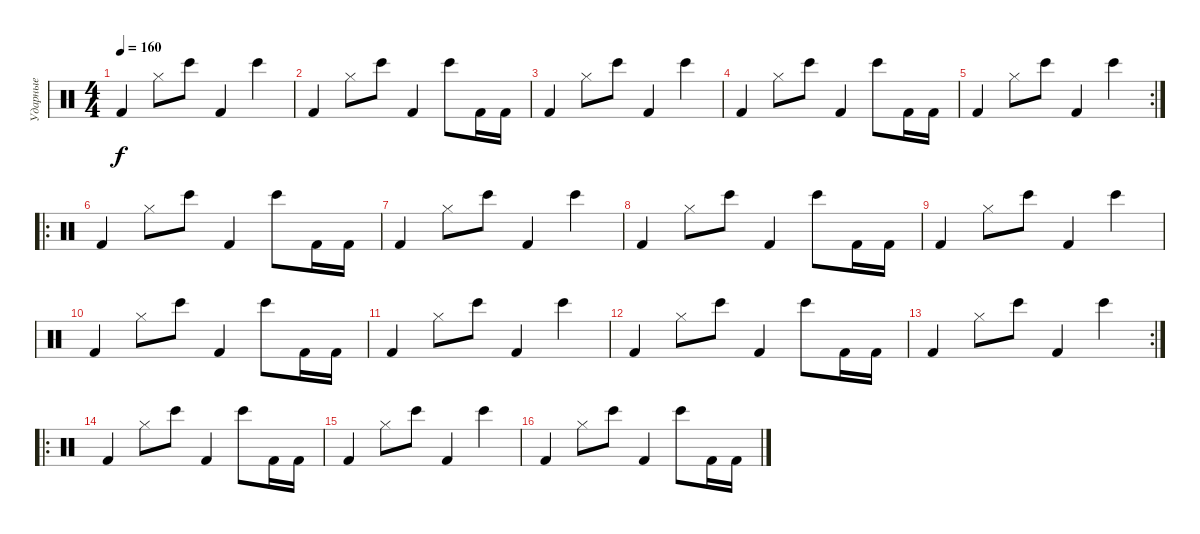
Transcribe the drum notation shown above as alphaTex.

\track ("Ударные" "Ударные") {instrument percussion}
\staff {score}
\articulation defaults
\ts (4 4)
\tempo 160
\clef neutral
\ks c "Kick (hit) 2".4{dy f} "Hi-Hat (closed)".8 "Bongo High (hit)".8 "Kick (hit) 2".4 "Bongo High (hit)".4
|
"Kick (hit) 2".4 "Hi-Hat (closed)".8 "Bongo High (hit)".8 "Kick (hit) 2".4 "Bongo High (hit)".8 "Kick (hit) 2".16 "Kick (hit) 2".16 |
"Kick (hit) 2".4 "Hi-Hat (closed)".8 "Bongo High (hit)".8 "Kick (hit) 2".4 "Bongo High (hit)".4 |
"Kick (hit) 2".4 "Hi-Hat (closed)".8 "Bongo High (hit)".8 "Kick (hit) 2".4 "Bongo High (hit)".8 "Kick (hit) 2".16 "Kick (hit) 2".16 |
\rc 2 "Kick (hit) 2".4 "Hi-Hat (closed)".8 "Bongo High (hit)".8 "Kick (hit) 2".4 "Bongo High (hit)".4
|
\ro "Kick (hit) 2".4 "Hi-Hat (closed)".8 "Bongo High (hit)".8 "Kick (hit) 2".4 "Bongo High (hit)".8 "Kick (hit) 2".16 "Kick (hit) 2".16
|
"Kick (hit) 2".4 "Hi-Hat (closed)".8 "Bongo High (hit)".8 "Kick (hit) 2".4 "Bongo High (hit)".4 |
"Kick (hit) 2".4 "Hi-Hat (closed)".8 "Bongo High (hit)".8 "Kick (hit) 2".4 "Bongo High (hit)".8 "Kick (hit) 2".16 "Kick (hit) 2".16 |
"Kick (hit) 2".4 "Hi-Hat (closed)".8 "Bongo High (hit)".8 "Kick (hit) 2".4 "Bongo High (hit)".4 |
"Kick (hit) 2".4 "Hi-Hat (closed)".8 "Bongo High (hit)".8 "Kick (hit) 2".4 "Bongo High (hit)".8 "Kick (hit) 2".16 "Kick (hit) 2".16 |
"Kick (hit) 2".4 "Hi-Hat (closed)".8 "Bongo High (hit)".8 "Kick (hit) 2".4 "Bongo High (hit)".4 |
"Kick (hit) 2".4 "Hi-Hat (closed)".8 "Bongo High (hit)".8 "Kick (hit) 2".4 "Bongo High (hit)".8 "Kick (hit) 2".16 "Kick (hit) 2".16 |
\rc 2 "Kick (hit) 2".4 "Hi-Hat (closed)".8 "Bongo High (hit)".8 "Kick (hit) 2".4 "Bongo High (hit)".4
|
\ro "Kick (hit) 2".4 "Hi-Hat (closed)".8 "Bongo High (hit)".8 "Kick (hit) 2".4 "Bongo High (hit)".8 "Kick (hit) 2".16 "Kick (hit) 2".16
|
"Kick (hit) 2".4 "Hi-Hat (closed)".8 "Bongo High (hit)".8 "Kick (hit) 2".4 "Bongo High (hit)".4 |
"Kick (hit) 2".4 "Hi-Hat (closed)".8 "Bongo High (hit)".8 "Kick (hit) 2".4 "Bongo High (hit)".8 "Kick (hit) 2".16 "Kick (hit) 2".16
